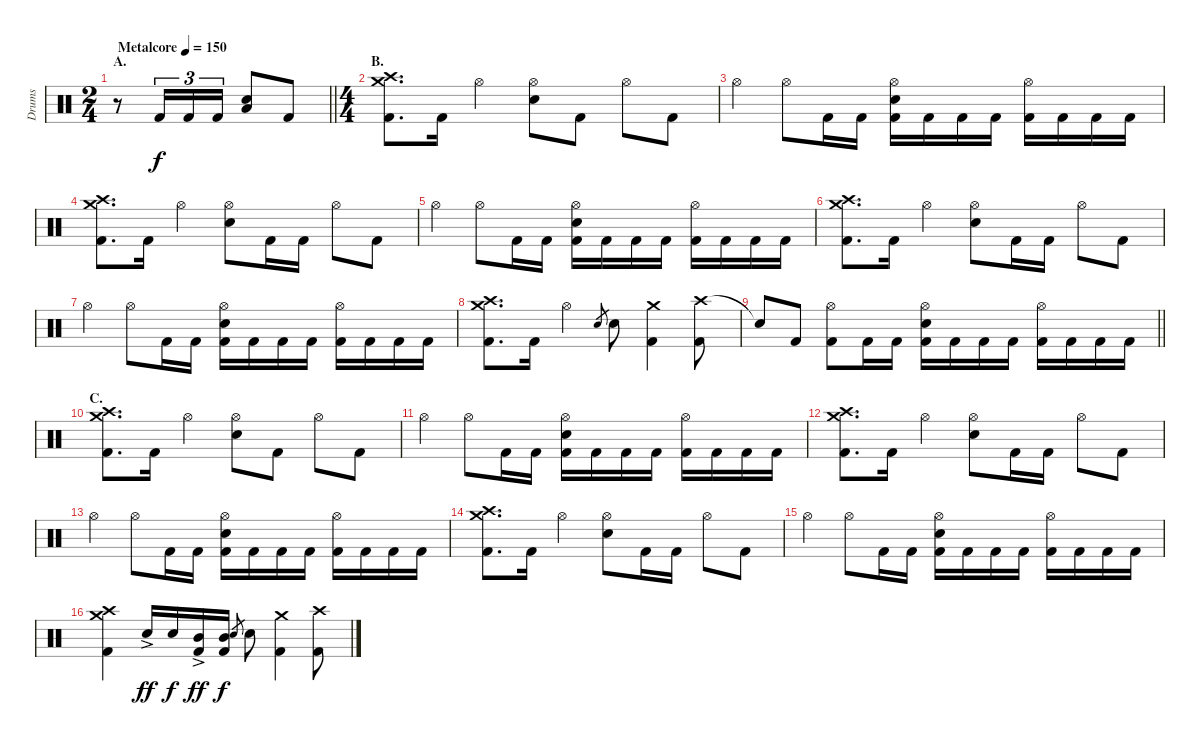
\track ("Drums" "Drums") {instrument percussion}
\staff {score}
\articulation defaults
\ts (2 4)
\section ("" "A.")
\tempo (150 "Metalcore")
\clef neutral
\barLineRight lightlight
\ks c
r.8{dy f} "Kick (hit) 2".16{tu (3 2)} "Kick (hit) 2".16{tu (3 2)} "Kick (hit) 2".16{tu (3 2)} ("Low Tom (hit)" "Electric Snare (hit)").8{bu 120} "Kick (hit) 2".8 |
\ts (4 4)
\section ("" "B.")
("Crash medium (hit)" "Crash high (hit)" "Kick (hit) 2").8{d} "Kick (hit) 2".16 "Hi-Hat (open)".4 ("Hi-Hat (open)" "Electric Snare (hit)").8 "Kick (hit) 2".8 "Hi-Hat (open)".8 "Kick (hit) 2".8 |
"Hi-Hat (open)".4 "Hi-Hat (open)".8 "Kick (hit) 2".16 "Kick (hit) 2".16 ("Hi-Hat (open)" "Electric Snare (hit)" "Kick (hit) 2").16 "Kick (hit) 2".16 "Kick (hit) 2".16 "Kick (hit) 2".16 ("Hi-Hat (open)" "Kick (hit) 2").16 "Kick (hit) 2".16 "Kick (hit) 2".16 "Kick (hit) 2".16 |
("Crash medium (hit)" "Crash high (hit)" "Kick (hit) 2").8{d} "Kick (hit) 2".16 "Hi-Hat (open)".4 ("Hi-Hat (open)" "Electric Snare (hit)").8 "Kick (hit) 2".16 "Kick (hit) 2".16 "Hi-Hat (open)".8 "Kick (hit) 2".8 |
"Hi-Hat (open)".4 "Hi-Hat (open)".8 "Kick (hit) 2".16 "Kick (hit) 2".16 ("Hi-Hat (open)" "Electric Snare (hit)" "Kick (hit) 2").16 "Kick (hit) 2".16 "Kick (hit) 2".16 "Kick (hit) 2".16 ("Hi-Hat (open)" "Kick (hit) 2").16 "Kick (hit) 2".16 "Kick (hit) 2".16 "Kick (hit) 2".16 |
("Crash medium (hit)" "Crash high (hit)" "Kick (hit) 2").8{d} "Kick (hit) 2".16 "Hi-Hat (open)".4 ("Hi-Hat (open)" "Electric Snare (hit)").8 "Kick (hit) 2".16 "Kick (hit) 2".16 "Hi-Hat (open)".8 "Kick (hit) 2".8 |
"Hi-Hat (open)".4 "Hi-Hat (open)".8 "Kick (hit) 2".16 "Kick (hit) 2".16 ("Hi-Hat (open)" "Electric Snare (hit)" "Kick (hit) 2").16 "Kick (hit) 2".16 "Kick (hit) 2".16 "Kick (hit) 2".16 ("Hi-Hat (open)" "Kick (hit) 2").16 "Kick (hit) 2".16 "Kick (hit) 2".16 "Kick (hit) 2".16 |
("Crash medium (hit)" "Crash high (hit)" "Kick (hit) 2").8{d} "Kick (hit) 2".16 "Hi-Hat (open)".4 "Electric Snare (hit)".8{gr} "Electric Snare (hit)".8 ("Crash medium (hit)" "Kick (hit) 2").4 ("Crash high (hit)" "Kick (hit) 2").8 |
\barLineRight lightlight "Snare (hit)"{t}.8 "Kick (hit) 2".8
("Hi-Hat (open)" "Kick (hit) 2").8 "Kick (hit) 2".16 "Kick (hit) 2".16 ("Hi-Hat (open)" "Electric Snare (hit)" "Kick (hit) 2").16 "Kick (hit) 2".16 "Kick (hit) 2".16 "Kick (hit) 2".16 ("Hi-Hat (open)" "Kick (hit) 2").16 "Kick (hit) 2".16 "Kick (hit) 2".16 "Kick (hit) 2".16 |
\section ("" "C.")
("Crash medium (hit)" "Crash high (hit)" "Kick (hit) 2").8{d} "Kick (hit) 2".16 "Hi-Hat (open)".4 ("Hi-Hat (open)" "Electric Snare (hit)").8 "Kick (hit) 2".8 "Hi-Hat (open)".8 "Kick (hit) 2".8 |
"Hi-Hat (open)".4 "Hi-Hat (open)".8 "Kick (hit) 2".16 "Kick (hit) 2".16 ("Hi-Hat (open)" "Electric Snare (hit)" "Kick (hit) 2").16 "Kick (hit) 2".16 "Kick (hit) 2".16 "Kick (hit) 2".16 ("Hi-Hat (open)" "Kick (hit) 2").16 "Kick (hit) 2".16 "Kick (hit) 2".16 "Kick (hit) 2".16 |
("Crash medium (hit)" "Crash high (hit)" "Kick (hit) 2").8{d} "Kick (hit) 2".16 "Hi-Hat (open)".4 ("Hi-Hat (open)" "Electric Snare (hit)").8 "Kick (hit) 2".16 "Kick (hit) 2".16 "Hi-Hat (open)".8 "Kick (hit) 2".8 |
"Hi-Hat (open)".4 "Hi-Hat (open)".8 "Kick (hit) 2".16 "Kick (hit) 2".16 ("Hi-Hat (open)" "Electric Snare (hit)" "Kick (hit) 2").16 "Kick (hit) 2".16 "Kick (hit) 2".16 "Kick (hit) 2".16 ("Hi-Hat (open)" "Kick (hit) 2").16 "Kick (hit) 2".16 "Kick (hit) 2".16 "Kick (hit) 2".16 |
("Crash medium (hit)" "Crash high (hit)" "Kick (hit) 2").8{d} "Kick (hit) 2".16 "Hi-Hat (open)".4 ("Hi-Hat (open)" "Electric Snare (hit)").8 "Kick (hit) 2".16 "Kick (hit) 2".16 "Hi-Hat (open)".8 "Kick (hit) 2".8 |
"Hi-Hat (open)".4 "Hi-Hat (open)".8 "Kick (hit) 2".16 "Kick (hit) 2".16 ("Hi-Hat (open)" "Electric Snare (hit)" "Kick (hit) 2").16 "Kick (hit) 2".16 "Kick (hit) 2".16 "Kick (hit) 2".16 ("Hi-Hat (open)" "Kick (hit) 2").16 "Kick (hit) 2".16 "Kick (hit) 2".16 "Kick (hit) 2".16 |
("Crash medium (hit)" "Crash high (hit)" "Kick (hit) 2").4 "Electric Snare (hit)"{ac}.16{dy ff} "Electric Snare (hit)".16{dy f} ("Mid Tom (hit)"{ac} "Kick (hit) 2").16{dy ff} ("Mid Tom (hit)" "Kick (hit) 2").16{dy f} "Electric Snare (hit)".8{gr} "Electric Snare (hit)".8 ("Crash medium (hit)" "Kick (hit) 2").4 ("Crash high (hit)" "Kick (hit) 2").8
